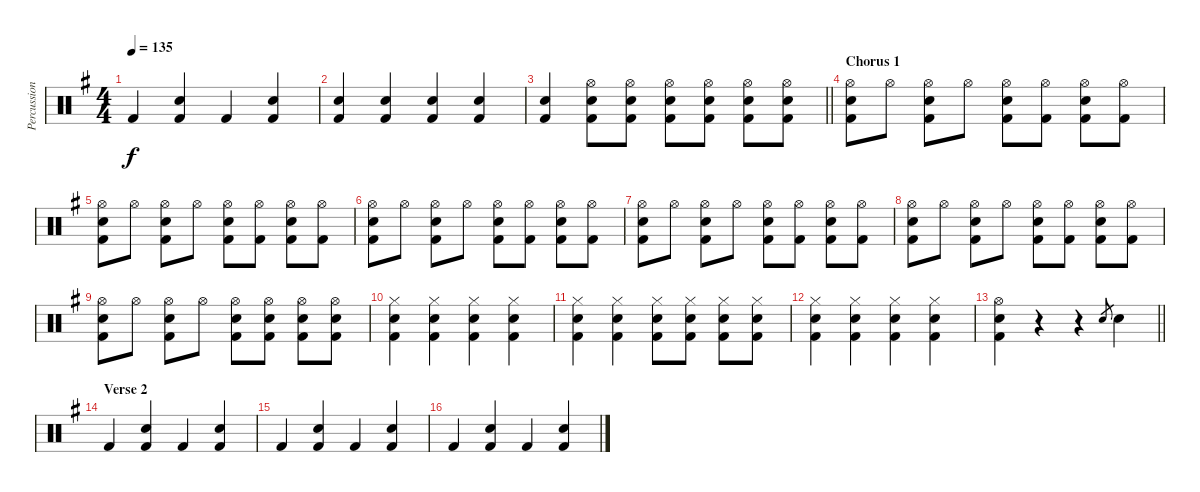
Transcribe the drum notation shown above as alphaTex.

\track ("Percussion" "Percussion") {instrument percussion}
\staff {score}
\articulation defaults
\ts (4 4)
\tempo 135
\clef neutral
\ks g "Kick (hit) 2".4{dy f}
("Snare (hit) 2" "Kick (hit) 2").4 "Kick (hit) 2".4 ("Snare (hit) 2" "Kick (hit) 2").4 |
("Snare (hit) 2" "Kick (hit) 2").4 ("Snare (hit) 2" "Kick (hit) 2").4 ("Snare (hit) 2" "Kick (hit) 2").4 ("Snare (hit) 2" "Kick (hit) 2").4 |
\barLineRight lightlight
("Snare (hit) 2" "Kick (hit) 2").4 ("Hi-Hat (open)" "Snare (hit) 2" "Kick (hit) 2").8 ("Hi-Hat (open)" "Snare (hit) 2" "Kick (hit) 2").8 ("Hi-Hat (open)" "Snare (hit) 2" "Kick (hit) 2").8 ("Hi-Hat (open)" "Snare (hit) 2" "Kick (hit) 2").8 ("Hi-Hat (open)" "Snare (hit) 2" "Kick (hit) 2").8 ("Hi-Hat (open)" "Snare (hit) 2" "Kick (hit) 2").8 |
\section ("" "Chorus 1")
("Hi-Hat (open)" "Snare (hit) 2" "Kick (hit) 2").8 "Hi-Hat (open)".8 ("Hi-Hat (open)" "Snare (hit) 2" "Kick (hit) 2").8 "Hi-Hat (open)".8 ("Hi-Hat (open)" "Snare (hit) 2" "Kick (hit) 2").8 ("Hi-Hat (open)" "Kick (hit) 2").8 ("Hi-Hat (open)" "Snare (hit) 2" "Kick (hit) 2").8 ("Hi-Hat (open)" "Kick (hit) 2").8 |
("Hi-Hat (open)" "Snare (hit) 2" "Kick (hit) 2").8 "Hi-Hat (open)".8 ("Hi-Hat (open)" "Snare (hit) 2" "Kick (hit) 2").8 "Hi-Hat (open)".8 ("Hi-Hat (open)" "Snare (hit) 2" "Kick (hit) 2").8 ("Hi-Hat (open)" "Kick (hit) 2").8 ("Hi-Hat (open)" "Snare (hit) 2" "Kick (hit) 2").8 ("Hi-Hat (open)" "Kick (hit) 2").8 |
("Hi-Hat (open)" "Snare (hit) 2" "Kick (hit) 2").8 "Hi-Hat (open)".8 ("Hi-Hat (open)" "Snare (hit) 2" "Kick (hit) 2").8 "Hi-Hat (open)".8 ("Hi-Hat (open)" "Snare (hit) 2" "Kick (hit) 2").8 ("Hi-Hat (open)" "Kick (hit) 2").8 ("Hi-Hat (open)" "Snare (hit) 2" "Kick (hit) 2").8 ("Hi-Hat (open)" "Kick (hit) 2").8 |
("Hi-Hat (open)" "Snare (hit) 2" "Kick (hit) 2").8 "Hi-Hat (open)".8 ("Hi-Hat (open)" "Snare (hit) 2" "Kick (hit) 2").8 "Hi-Hat (open)".8 ("Hi-Hat (open)" "Snare (hit) 2" "Kick (hit) 2").8 ("Hi-Hat (open)" "Kick (hit) 2").8 ("Hi-Hat (open)" "Snare (hit) 2" "Kick (hit) 2").8 ("Hi-Hat (open)" "Kick (hit) 2").8 |
("Hi-Hat (open)" "Snare (hit) 2" "Kick (hit) 2").8 "Hi-Hat (open)".8 ("Hi-Hat (open)" "Snare (hit) 2" "Kick (hit) 2").8 "Hi-Hat (open)".8 ("Hi-Hat (open)" "Snare (hit) 2" "Kick (hit) 2").8 ("Hi-Hat (open)" "Kick (hit) 2").8 ("Hi-Hat (open)" "Snare (hit) 2" "Kick (hit) 2").8 ("Hi-Hat (open)" "Kick (hit) 2").8 |
("Hi-Hat (open)" "Snare (hit) 2" "Kick (hit) 2").8 "Hi-Hat (open)".8 ("Hi-Hat (open)" "Snare (hit) 2" "Kick (hit) 2").8 "Hi-Hat (open)".8 ("Hi-Hat (open)" "Snare (hit) 2" "Kick (hit) 2").8 ("Hi-Hat (open)" "Snare (hit) 2" "Kick (hit) 2").8 ("Hi-Hat (open)" "Snare (hit) 2" "Kick (hit) 2").8 ("Hi-Hat (open)" "Snare (hit) 2" "Kick (hit) 2").8 |
("Hi-Hat (closed)" "Snare (hit) 2" "Kick (hit) 2").4 ("Hi-Hat (closed)" "Snare (hit) 2" "Kick (hit) 2").4 ("Hi-Hat (closed)" "Snare (hit) 2" "Kick (hit) 2").4 ("Hi-Hat (closed)" "Snare (hit) 2" "Kick (hit) 2").4 |
("Hi-Hat (closed)" "Snare (hit) 2" "Kick (hit) 2").4 ("Hi-Hat (closed)" "Snare (hit) 2" "Kick (hit) 2").4 ("Hi-Hat (closed)" "Snare (hit) 2" "Kick (hit) 2").8 ("Hi-Hat (closed)" "Snare (hit) 2" "Kick (hit) 2").8 ("Hi-Hat (closed)" "Snare (hit) 2" "Kick (hit) 2").8 ("Hi-Hat (closed)" "Snare (hit) 2" "Kick (hit) 2").8 |
("Hi-Hat (closed)" "Snare (hit) 2" "Kick (hit) 2").4 ("Hi-Hat (closed)" "Snare (hit) 2" "Kick (hit) 2").4 ("Hi-Hat (closed)" "Snare (hit) 2" "Kick (hit) 2").4 ("Hi-Hat (closed)" "Snare (hit) 2" "Kick (hit) 2").4 |
\barLineRight lightlight
("Hi-Hat (open)" "Snare (hit) 2" "Kick (hit) 2").4 r.4 r.4 "Snare (hit) 2".8{gr} "Snare (hit) 2".4 |
\section ("" "Verse 2")
"Kick (hit) 2".4 ("Snare (hit) 2" "Kick (hit) 2").4 "Kick (hit) 2".4 ("Snare (hit) 2" "Kick (hit) 2").4 |
"Kick (hit) 2".4 ("Snare (hit) 2" "Kick (hit) 2").4 "Kick (hit) 2".4 ("Snare (hit) 2" "Kick (hit) 2").4 |
"Kick (hit) 2".4 ("Snare (hit) 2" "Kick (hit) 2").4 "Kick (hit) 2".4 ("Snare (hit) 2" "Kick (hit) 2").4
